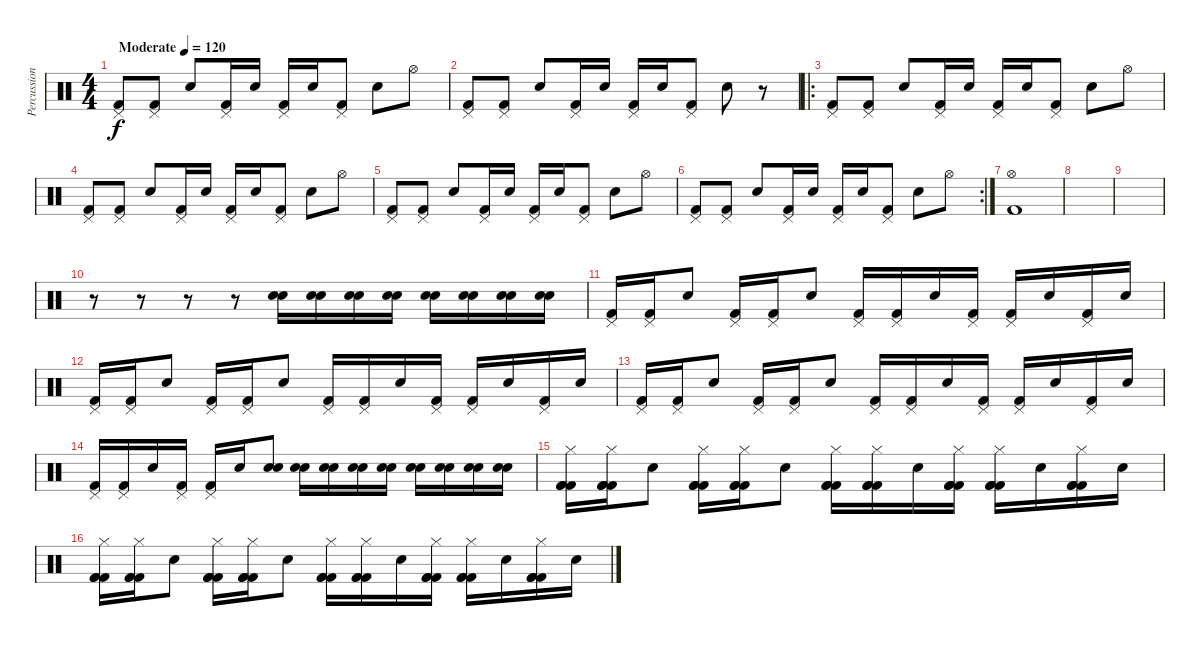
\track ("Percussion" "Percussion") {instrument percussion}
\staff {score}
\articulation defaults
\ts (4 4)
\tempo (120 "Moderate")
\clef neutral
\ks c
("Pedal Hi-Hat (hit)" "Kick (hit) 2").8{dy f} ("Pedal Hi-Hat (hit)" "Kick (hit) 2").8 "Snare (hit) 2".8 ("Pedal Hi-Hat (hit)" "Kick (hit) 2").16 "Snare (hit) 2".16 ("Pedal Hi-Hat (hit)" "Kick (hit) 2").16 "Snare (hit) 2".16 ("Pedal Hi-Hat (hit)" "Kick (hit) 2").8 "Snare (hit) 2".8 "Hi-Hat (open)".8 |
("Pedal Hi-Hat (hit)" "Kick (hit) 2").8 ("Pedal Hi-Hat (hit)" "Kick (hit) 2").8 "Snare (hit) 2".8 ("Pedal Hi-Hat (hit)" "Kick (hit) 2").16 "Snare (hit) 2".16 ("Pedal Hi-Hat (hit)" "Kick (hit) 2").16 "Snare (hit) 2".16 ("Pedal Hi-Hat (hit)" "Kick (hit) 2").8 "Snare (hit) 2".8 r.8 |
\ro
("Pedal Hi-Hat (hit)" "Kick (hit) 2").8 ("Pedal Hi-Hat (hit)" "Kick (hit) 2").8 "Snare (hit) 2".8 ("Pedal Hi-Hat (hit)" "Kick (hit) 2").16 "Snare (hit) 2".16 ("Pedal Hi-Hat (hit)" "Kick (hit) 2").16 "Snare (hit) 2".16 ("Pedal Hi-Hat (hit)" "Kick (hit) 2").8 "Snare (hit) 2".8 "Hi-Hat (open)".8 |
("Pedal Hi-Hat (hit)" "Kick (hit) 2").8 ("Pedal Hi-Hat (hit)" "Kick (hit) 2").8 "Snare (hit) 2".8 ("Pedal Hi-Hat (hit)" "Kick (hit) 2").16 "Snare (hit) 2".16 ("Pedal Hi-Hat (hit)" "Kick (hit) 2").16 "Snare (hit) 2".16 ("Pedal Hi-Hat (hit)" "Kick (hit) 2").8 "Snare (hit) 2".8 "Hi-Hat (open)".8 |
("Pedal Hi-Hat (hit)" "Kick (hit) 2").8 ("Pedal Hi-Hat (hit)" "Kick (hit) 2").8 "Snare (hit) 2".8 ("Pedal Hi-Hat (hit)" "Kick (hit) 2").16 "Snare (hit) 2".16 ("Pedal Hi-Hat (hit)" "Kick (hit) 2").16 "Snare (hit) 2".16 ("Pedal Hi-Hat (hit)" "Kick (hit) 2").8 "Snare (hit) 2".8 "Hi-Hat (open)".8 |
\rc 2
("Pedal Hi-Hat (hit)" "Kick (hit) 2").8 ("Pedal Hi-Hat (hit)" "Kick (hit) 2").8 "Snare (hit) 2".8 ("Pedal Hi-Hat (hit)" "Kick (hit) 2").16 "Snare (hit) 2".16 ("Pedal Hi-Hat (hit)" "Kick (hit) 2").16 "Snare (hit) 2".16 ("Pedal Hi-Hat (hit)" "Kick (hit) 2").8 "Snare (hit) 2".8 "Hi-Hat (open)".8 |
("Hi-Hat (open)" "Kick (hit) 2").1 |
|
|
r.8 r.8 r.8 r.8 ("Snare (hit) 2" "Snare (hit) 2").16 ("Snare (hit) 2" "Snare (hit) 2").16 ("Snare (hit) 2" "Snare (hit) 2").16 ("Snare (hit) 2" "Snare (hit) 2").16 ("Snare (hit) 2" "Snare (hit) 2").16 ("Snare (hit) 2" "Snare (hit) 2").16 ("Snare (hit) 2" "Snare (hit) 2").16 ("Snare (hit) 2" "Snare (hit) 2").16 |
("Pedal Hi-Hat (hit)" "Kick (hit) 2").16 ("Pedal Hi-Hat (hit)" "Kick (hit) 2").16 "Snare (hit) 2".8 ("Pedal Hi-Hat (hit)" "Kick (hit) 2").16 ("Pedal Hi-Hat (hit)" "Kick (hit) 2").16 "Snare (hit) 2".8 ("Pedal Hi-Hat (hit)" "Kick (hit) 2").16 ("Pedal Hi-Hat (hit)" "Kick (hit) 2").16 "Snare (hit) 2".16 ("Pedal Hi-Hat (hit)" "Kick (hit) 2").16 ("Pedal Hi-Hat (hit)" "Kick (hit) 2").16 "Snare (hit) 2".16 ("Pedal Hi-Hat (hit)" "Kick (hit) 2").16 "Snare (hit) 2".16 |
("Pedal Hi-Hat (hit)" "Kick (hit) 2").16 ("Pedal Hi-Hat (hit)" "Kick (hit) 2").16 "Snare (hit) 2".8 ("Pedal Hi-Hat (hit)" "Kick (hit) 2").16 ("Pedal Hi-Hat (hit)" "Kick (hit) 2").16 "Snare (hit) 2".8 ("Pedal Hi-Hat (hit)" "Kick (hit) 2").16 ("Pedal Hi-Hat (hit)" "Kick (hit) 2").16 "Snare (hit) 2".16 ("Pedal Hi-Hat (hit)" "Kick (hit) 2").16 ("Pedal Hi-Hat (hit)" "Kick (hit) 2").16 "Snare (hit) 2".16 ("Pedal Hi-Hat (hit)" "Kick (hit) 2").16 "Snare (hit) 2".16 |
("Pedal Hi-Hat (hit)" "Kick (hit) 2").16 ("Pedal Hi-Hat (hit)" "Kick (hit) 2").16 "Snare (hit) 2".8 ("Pedal Hi-Hat (hit)" "Kick (hit) 2").16 ("Pedal Hi-Hat (hit)" "Kick (hit) 2").16 "Snare (hit) 2".8 ("Pedal Hi-Hat (hit)" "Kick (hit) 2").16 ("Pedal Hi-Hat (hit)" "Kick (hit) 2").16 "Snare (hit) 2".16 ("Pedal Hi-Hat (hit)" "Kick (hit) 2").16 ("Pedal Hi-Hat (hit)" "Kick (hit) 2").16 "Snare (hit) 2".16 ("Pedal Hi-Hat (hit)" "Kick (hit) 2").16 "Snare (hit) 2".16 |
("Pedal Hi-Hat (hit)" "Kick (hit) 2").16 ("Pedal Hi-Hat (hit)" "Kick (hit) 2").16 "Snare (hit) 2".16 ("Pedal Hi-Hat (hit)" "Kick (hit) 2").16 ("Pedal Hi-Hat (hit)" "Kick (hit) 2").16 "Snare (hit) 2".16 ("Snare (hit) 2" "Snare (hit) 2").8 ("Snare (hit) 2" "Snare (hit) 2").16 ("Snare (hit) 2" "Snare (hit) 2").16 ("Snare (hit) 2" "Snare (hit) 2").16 ("Snare (hit) 2" "Snare (hit) 2").16 ("Snare (hit) 2" "Snare (hit) 2").16 ("Snare (hit) 2" "Snare (hit) 2").16 ("Snare (hit) 2" "Snare (hit) 2").16 ("Snare (hit) 2" "Snare (hit) 2").16 |
("Kick (hit) 2" "Kick (hit) 2" "Hi-Hat (closed)" "Kick (hit) 2").16 ("Kick (hit) 2" "Kick (hit) 2" "Hi-Hat (closed)" "Kick (hit) 2").16 "Snare (hit) 2".8 ("Kick (hit) 2" "Kick (hit) 2" "Hi-Hat (closed)" "Kick (hit) 2").16 ("Kick (hit) 2" "Kick (hit) 2" "Hi-Hat (closed)" "Kick (hit) 2").16 "Snare (hit) 2".8 ("Kick (hit) 2" "Kick (hit) 2" "Hi-Hat (closed)" "Kick (hit) 2").16 ("Kick (hit) 2" "Kick (hit) 2" "Hi-Hat (closed)" "Kick (hit) 2").16 "Snare (hit) 2".16 ("Kick (hit) 2" "Kick (hit) 2" "Hi-Hat (closed)" "Kick (hit) 2").16 ("Kick (hit) 2" "Kick (hit) 2" "Hi-Hat (closed)" "Kick (hit) 2").16 "Snare (hit) 2".16 ("Kick (hit) 2" "Kick (hit) 2" "Hi-Hat (closed)" "Kick (hit) 2").16 "Snare (hit) 2".16 |
("Kick (hit) 2" "Kick (hit) 2" "Hi-Hat (closed)" "Kick (hit) 2").16 ("Kick (hit) 2" "Kick (hit) 2" "Hi-Hat (closed)" "Kick (hit) 2").16 "Snare (hit) 2".8 ("Kick (hit) 2" "Kick (hit) 2" "Hi-Hat (closed)" "Kick (hit) 2").16 ("Kick (hit) 2" "Kick (hit) 2" "Hi-Hat (closed)" "Kick (hit) 2").16 "Snare (hit) 2".8 ("Kick (hit) 2" "Kick (hit) 2" "Hi-Hat (closed)" "Kick (hit) 2").16 ("Kick (hit) 2" "Kick (hit) 2" "Hi-Hat (closed)" "Kick (hit) 2").16 "Snare (hit) 2".16 ("Kick (hit) 2" "Kick (hit) 2" "Hi-Hat (closed)" "Kick (hit) 2").16 ("Kick (hit) 2" "Kick (hit) 2" "Hi-Hat (closed)" "Kick (hit) 2").16 "Snare (hit) 2".16 ("Kick (hit) 2" "Kick (hit) 2" "Hi-Hat (closed)" "Kick (hit) 2").16 "Snare (hit) 2".16
